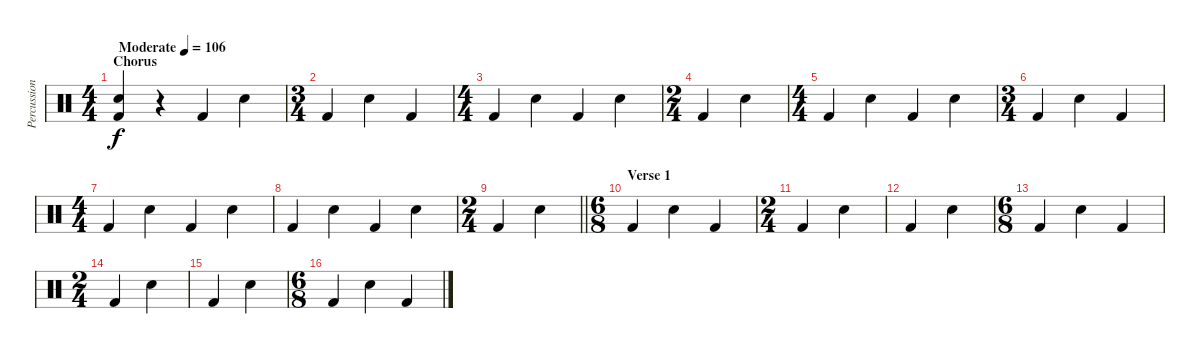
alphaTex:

\track ("Percussion" "Percussion") {instrument percussion}
\staff {score}
\articulation defaults
\ts (4 4)
\section ("" "Chorus")
\tempo (106 "Moderate")
\clef neutral
\ks c
("Snare (hit) 2" "Kick (hit) 2").4{dy f} r.4 "Kick (hit) 2".4 "Snare (hit) 2".4 |
\ts (3 4)
"Kick (hit) 2".4 "Snare (hit) 2".4 "Kick (hit) 2".4 |
\ts (4 4)
"Kick (hit) 2".4 "Snare (hit) 2".4 "Kick (hit) 2".4 "Snare (hit) 2".4 |
\ts (2 4)
"Kick (hit) 2".4 "Snare (hit) 2".4 |
\ts (4 4)
"Kick (hit) 2".4 "Snare (hit) 2".4 "Kick (hit) 2".4 "Snare (hit) 2".4 |
\ts (3 4)
"Kick (hit) 2".4 "Snare (hit) 2".4 "Kick (hit) 2".4 |
\ts (4 4)
"Kick (hit) 2".4 "Snare (hit) 2".4 "Kick (hit) 2".4 "Snare (hit) 2".4 |
"Kick (hit) 2".4 "Snare (hit) 2".4 "Kick (hit) 2".4 "Snare (hit) 2".4 |
\ts (2 4)
\barLineRight lightlight "Kick (hit) 2".4 "Snare (hit) 2".4
|
\ts (6 8)
\section ("" "Verse 1")
"Kick (hit) 2".4 "Snare (hit) 2".4 "Kick (hit) 2".4 |
\ts (2 4)
"Kick (hit) 2".4 "Snare (hit) 2".4 |
"Kick (hit) 2".4 "Snare (hit) 2".4 |
\ts (6 8)
"Kick (hit) 2".4 "Snare (hit) 2".4 "Kick (hit) 2".4 |
\ts (2 4)
"Kick (hit) 2".4 "Snare (hit) 2".4 |
"Kick (hit) 2".4 "Snare (hit) 2".4 |
\ts (6 8)
"Kick (hit) 2".4 "Snare (hit) 2".4 "Kick (hit) 2".4
